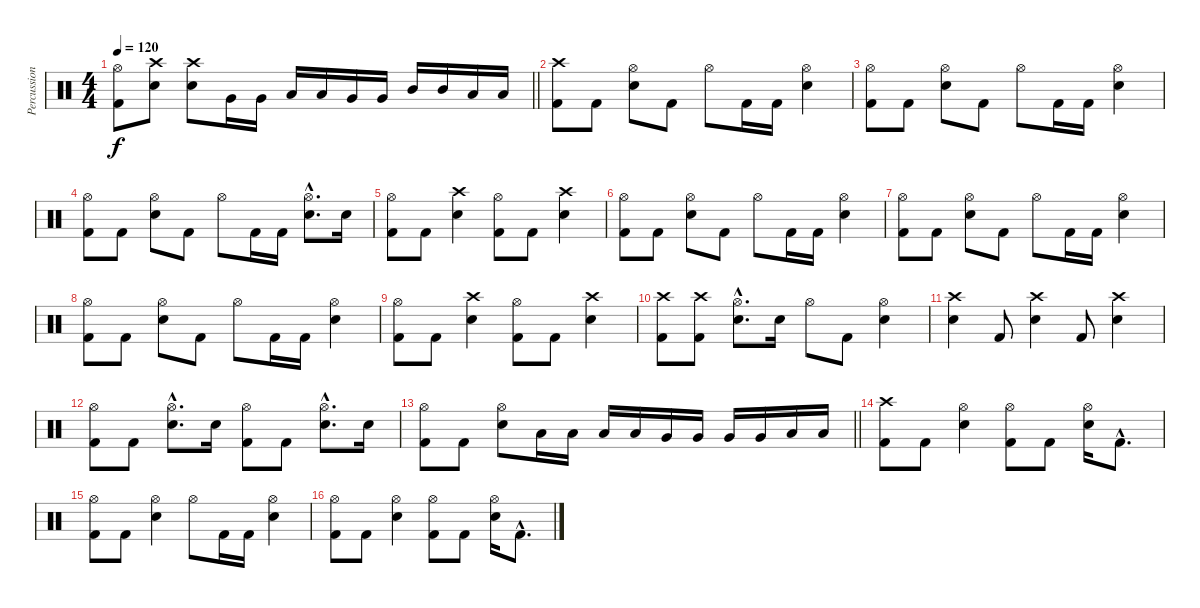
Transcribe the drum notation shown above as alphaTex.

\track ("Percussion" "Percussion") {instrument percussion}
\staff {score}
\articulation defaults
\ts (4 4)
\tempo 120
\clef neutral
\barLineRight lightlight
\ks c
("Hi-Hat (open)" "Kick (hit) 2").8{dy f} ("Crash high (hit)" "Snare (hit) 2").8 ("Crash high (hit)" "Snare (hit) 2").8 "Very Low Tom (hit)".16 "Very Low Tom (hit)".16 "Low Tom (hit)".16 "Low Tom (hit)".16 "Very Low Tom (hit)".16 "Very Low Tom (hit)".16 "Mid Tom (hit)".16 "Mid Tom (hit)".16 "Low Tom (hit)".16 "Low Tom (hit)".16 |
("Crash high (hit)" "Kick (hit) 2").8 "Kick (hit) 2".8 ("Hi-Hat (open)" "Snare (hit) 2").8 "Kick (hit) 2".8 "Hi-Hat (open)".8 "Kick (hit) 2".16 "Kick (hit) 2".16 ("Hi-Hat (open)" "Snare (hit) 2").4 |
("Hi-Hat (open)" "Kick (hit) 2").8 "Kick (hit) 2".8 ("Hi-Hat (open)" "Snare (hit) 2").8 "Kick (hit) 2".8 "Hi-Hat (open)".8 "Kick (hit) 2".16 "Kick (hit) 2".16 ("Hi-Hat (open)" "Snare (hit) 2").4 |
("Hi-Hat (open)" "Kick (hit) 2").8 "Kick (hit) 2".8 ("Hi-Hat (open)" "Snare (hit) 2").8 "Kick (hit) 2".8 "Hi-Hat (open)".8 "Kick (hit) 2".16 "Kick (hit) 2".16 ("Hi-Hat (open)"{hac} "Snare (hit) 2"{hac}).8{d} "Snare (hit) 2".16 |
("Hi-Hat (open)" "Kick (hit) 2").8 "Kick (hit) 2".8 ("Crash high (hit)" "Snare (hit) 2").4 ("Hi-Hat (open)" "Kick (hit) 2").8 "Kick (hit) 2".8 ("Crash high (hit)" "Snare (hit) 2").4 |
("Hi-Hat (open)" "Kick (hit) 2").8 "Kick (hit) 2".8 ("Hi-Hat (open)" "Snare (hit) 2").8 "Kick (hit) 2".8 "Hi-Hat (open)".8 "Kick (hit) 2".16 "Kick (hit) 2".16 ("Hi-Hat (open)" "Snare (hit) 2").4 |
("Hi-Hat (open)" "Kick (hit) 2").8 "Kick (hit) 2".8 ("Hi-Hat (open)" "Snare (hit) 2").8 "Kick (hit) 2".8 "Hi-Hat (open)".8 "Kick (hit) 2".16 "Kick (hit) 2".16 ("Hi-Hat (open)" "Snare (hit) 2").4 |
("Hi-Hat (open)" "Kick (hit) 2").8 "Kick (hit) 2".8 ("Hi-Hat (open)" "Snare (hit) 2").8 "Kick (hit) 2".8 "Hi-Hat (open)".8 "Kick (hit) 2".16 "Kick (hit) 2".16 ("Hi-Hat (open)" "Snare (hit) 2").4 |
("Hi-Hat (open)" "Kick (hit) 2").8 "Kick (hit) 2".8 ("Crash high (hit)" "Snare (hit) 2").4 ("Hi-Hat (open)" "Kick (hit) 2").8 "Kick (hit) 2".8 ("Crash high (hit)" "Snare (hit) 2").4 |
("Crash high (hit)" "Kick (hit) 2").8 ("Crash high (hit)" "Kick (hit) 2").8 ("Hi-Hat (open)"{hac} "Snare (hit) 2"{hac}).8{d} "Snare (hit) 2".16 "Hi-Hat (open)".8 "Kick (hit) 2".8 ("Hi-Hat (open)" "Snare (hit) 2").4 |
("Crash high (hit)" "Snare (hit) 2").4 "Kick (hit) 2".8 ("Crash high (hit)" "Snare (hit) 2").4 "Kick (hit) 2".8 ("Crash high (hit)" "Snare (hit) 2").4 |
("Hi-Hat (open)" "Kick (hit) 2").8 "Kick (hit) 2".8 ("Hi-Hat (open)"{hac} "Snare (hit) 2"{hac}).8{d} "Snare (hit) 2".16 ("Hi-Hat (open)" "Kick (hit) 2").8 "Kick (hit) 2".8 ("Hi-Hat (open)"{hac} "Snare (hit) 2"{hac}).8{d} "Snare (hit) 2".16 |
\barLineRight lightlight
("Hi-Hat (open)" "Kick (hit) 2").8 "Kick (hit) 2".8 ("Hi-Hat (open)" "Snare (hit) 2").8 "Low Tom (hit)".16 "Low Tom (hit)".16 "Low Tom (hit)".16 "Low Tom (hit)".16 "Very Low Tom (hit)".16 "Very Low Tom (hit)".16 "Very Low Tom (hit)".16 "Very Low Tom (hit)".16 "Low Floor Tom (hit)".16 "Low Floor Tom (hit)".16 |
("Crash high (hit)" "Kick (hit) 2").8 "Kick (hit) 2".8 ("Hi-Hat (open)" "Snare (hit) 2").4 ("Hi-Hat (open)" "Kick (hit) 2").8 "Kick (hit) 2".8 ("Hi-Hat (open)" "Snare (hit) 2").16 "Kick (hit) 2"{hac}.8{d} |
("Hi-Hat (open)" "Kick (hit) 2").8 "Kick (hit) 2".8 ("Hi-Hat (open)" "Snare (hit) 2").4 "Hi-Hat (open)".8 "Kick (hit) 2".16 "Kick (hit) 2".16 ("Hi-Hat (open)" "Snare (hit) 2").4 |
("Hi-Hat (open)" "Kick (hit) 2").8 "Kick (hit) 2".8 ("Hi-Hat (open)" "Snare (hit) 2").4 ("Hi-Hat (open)" "Kick (hit) 2").8 "Kick (hit) 2".8 ("Hi-Hat (open)" "Snare (hit) 2").16 "Kick (hit) 2"{hac}.8{d}
